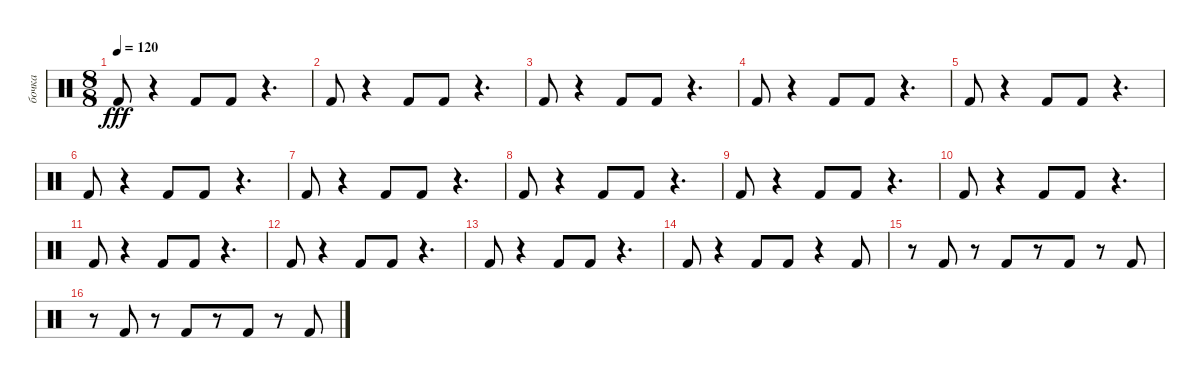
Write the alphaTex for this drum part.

\track ("бочка" "бочка") {instrument percussion}
\staff {score}
\articulation defaults
\ts (8 8)
\tempo 120
\clef neutral
\ks c "Kick (hit) 2".8{dy fff}
r.4 "Kick (hit) 2".8 "Kick (hit) 2".8 r.4{d} |
"Kick (hit) 2".8 r.4 "Kick (hit) 2".8 "Kick (hit) 2".8 r.4{d} |
"Kick (hit) 2".8 r.4 "Kick (hit) 2".8 "Kick (hit) 2".8 r.4{d} |
"Kick (hit) 2".8 r.4 "Kick (hit) 2".8 "Kick (hit) 2".8 r.4{d} |
"Kick (hit) 2".8 r.4 "Kick (hit) 2".8 "Kick (hit) 2".8 r.4{d} |
"Kick (hit) 2".8 r.4 "Kick (hit) 2".8 "Kick (hit) 2".8 r.4{d} |
"Kick (hit) 2".8 r.4 "Kick (hit) 2".8 "Kick (hit) 2".8 r.4{d} |
"Kick (hit) 2".8 r.4 "Kick (hit) 2".8 "Kick (hit) 2".8 r.4{d} |
"Kick (hit) 2".8 r.4 "Kick (hit) 2".8 "Kick (hit) 2".8 r.4{d} |
"Kick (hit) 2".8 r.4 "Kick (hit) 2".8 "Kick (hit) 2".8 r.4{d} |
"Kick (hit) 2".8 r.4 "Kick (hit) 2".8 "Kick (hit) 2".8 r.4{d} |
"Kick (hit) 2".8 r.4 "Kick (hit) 2".8 "Kick (hit) 2".8 r.4{d} |
"Kick (hit) 2".8 r.4 "Kick (hit) 2".8 "Kick (hit) 2".8 r.4{d} |
"Kick (hit) 2".8 r.4 "Kick (hit) 2".8 "Kick (hit) 2".8 r.4 "Kick (hit) 2".8 |
r.8 "Kick (hit) 2".8 r.8 "Kick (hit) 2".8 r.8 "Kick (hit) 2".8 r.8 "Kick (hit) 2".8 |
r.8 "Kick (hit) 2".8 r.8 "Kick (hit) 2".8 r.8 "Kick (hit) 2".8 r.8 "Kick (hit) 2".8
